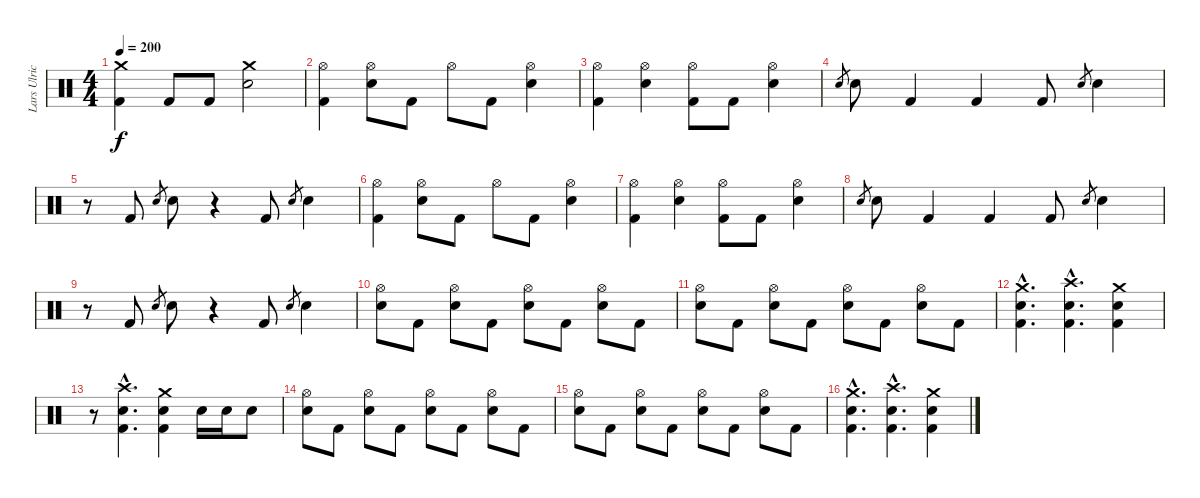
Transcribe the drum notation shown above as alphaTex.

\track ("Lars Ulrich" "Lars Ulric") {instrument percussion}
\staff {score}
\articulation defaults
\ts (4 4)
\tempo 200
\clef neutral
\ks c
("Crash medium (hit)" "Kick (hit) 2").4{dy f} "Kick (hit) 2".8 "Kick (hit) 2".8 ("Crash medium (hit)" "Electric Snare (hit)").2 |
("Hi-Hat (open)" "Kick (hit) 2").4 ("Hi-Hat (open)" "Electric Snare (hit)").8 "Kick (hit) 2".8 "Hi-Hat (open)".8 "Kick (hit) 2".8 ("Hi-Hat (open)" "Electric Snare (hit)").4 |
("Hi-Hat (open)" "Kick (hit) 2").4 ("Hi-Hat (open)" "Electric Snare (hit)").4 ("Hi-Hat (open)" "Kick (hit) 2").8 "Kick (hit) 2".8 ("Hi-Hat (open)" "Electric Snare (hit)").4 |
"Electric Snare (hit)".8{gr} "Electric Snare (hit)".8 "Kick (hit) 2".4 "Kick (hit) 2".4 "Kick (hit) 2".8 "Electric Snare (hit)".8{gr} "Electric Snare (hit)".4 |
r.8 "Kick (hit) 2".8 "Electric Snare (hit)".8{gr} "Electric Snare (hit)".8 r.4 "Kick (hit) 2".8 "Electric Snare (hit)".8{gr} "Electric Snare (hit)".4 |
("Hi-Hat (open)" "Kick (hit) 2").4 ("Hi-Hat (open)" "Electric Snare (hit)").8 "Kick (hit) 2".8 "Hi-Hat (open)".8 "Kick (hit) 2".8 ("Hi-Hat (open)" "Electric Snare (hit)").4 |
("Hi-Hat (open)" "Kick (hit) 2").4 ("Hi-Hat (open)" "Electric Snare (hit)").4 ("Hi-Hat (open)" "Kick (hit) 2").8 "Kick (hit) 2".8 ("Hi-Hat (open)" "Electric Snare (hit)").4 |
"Electric Snare (hit)".8{gr} "Electric Snare (hit)".8 "Kick (hit) 2".4 "Kick (hit) 2".4 "Kick (hit) 2".8 "Electric Snare (hit)".8{gr} "Electric Snare (hit)".4 |
r.8 "Kick (hit) 2".8 "Electric Snare (hit)".8{gr} "Electric Snare (hit)".8 r.4 "Kick (hit) 2".8 "Electric Snare (hit)".8{gr} "Electric Snare (hit)".4 |
("Hi-Hat (open)" "Electric Snare (hit)").8 "Kick (hit) 2".8 ("Hi-Hat (open)" "Electric Snare (hit)").8 "Kick (hit) 2".8 ("Hi-Hat (open)" "Electric Snare (hit)").8 "Kick (hit) 2".8 ("Hi-Hat (open)" "Electric Snare (hit)").8 "Kick (hit) 2".8 |
("Hi-Hat (open)" "Electric Snare (hit)").8 "Kick (hit) 2".8 ("Hi-Hat (open)" "Electric Snare (hit)").8 "Kick (hit) 2".8 ("Hi-Hat (open)" "Electric Snare (hit)").8 "Kick (hit) 2".8 ("Hi-Hat (open)" "Electric Snare (hit)").8 "Kick (hit) 2".8 |
("Crash medium (hit)"{hac} "Electric Snare (hit)"{hac} "Kick (hit) 2"{hac}).4{d} ("Crash high (hit)"{hac} "Electric Snare (hit)"{hac} "Kick (hit) 2"{hac}).4{d} ("Crash medium (hit)" "Electric Snare (hit)" "Kick (hit) 2").4 |
r.8 ("Crash high (hit)"{hac} "Electric Snare (hit)"{hac} "Kick (hit) 2"{hac}).4{d} ("Crash medium (hit)" "Electric Snare (hit)" "Kick (hit) 2").4 "Electric Snare (hit)".16 "Electric Snare (hit)".16 "Electric Snare (hit)".8 |
("Hi-Hat (open)" "Electric Snare (hit)").8 "Kick (hit) 2".8 ("Hi-Hat (open)" "Electric Snare (hit)").8 "Kick (hit) 2".8 ("Hi-Hat (open)" "Electric Snare (hit)").8 "Kick (hit) 2".8 ("Hi-Hat (open)" "Electric Snare (hit)").8 "Kick (hit) 2".8 |
("Hi-Hat (open)" "Electric Snare (hit)").8 "Kick (hit) 2".8 ("Hi-Hat (open)" "Electric Snare (hit)").8 "Kick (hit) 2".8 ("Hi-Hat (open)" "Electric Snare (hit)").8 "Kick (hit) 2".8 ("Hi-Hat (open)" "Electric Snare (hit)").8 "Kick (hit) 2".8 |
("Crash medium (hit)"{hac} "Electric Snare (hit)"{hac} "Kick (hit) 2"{hac}).4{d} ("Crash high (hit)"{hac} "Electric Snare (hit)"{hac} "Kick (hit) 2"{hac}).4{d} ("Crash medium (hit)" "Electric Snare (hit)" "Kick (hit) 2").4
